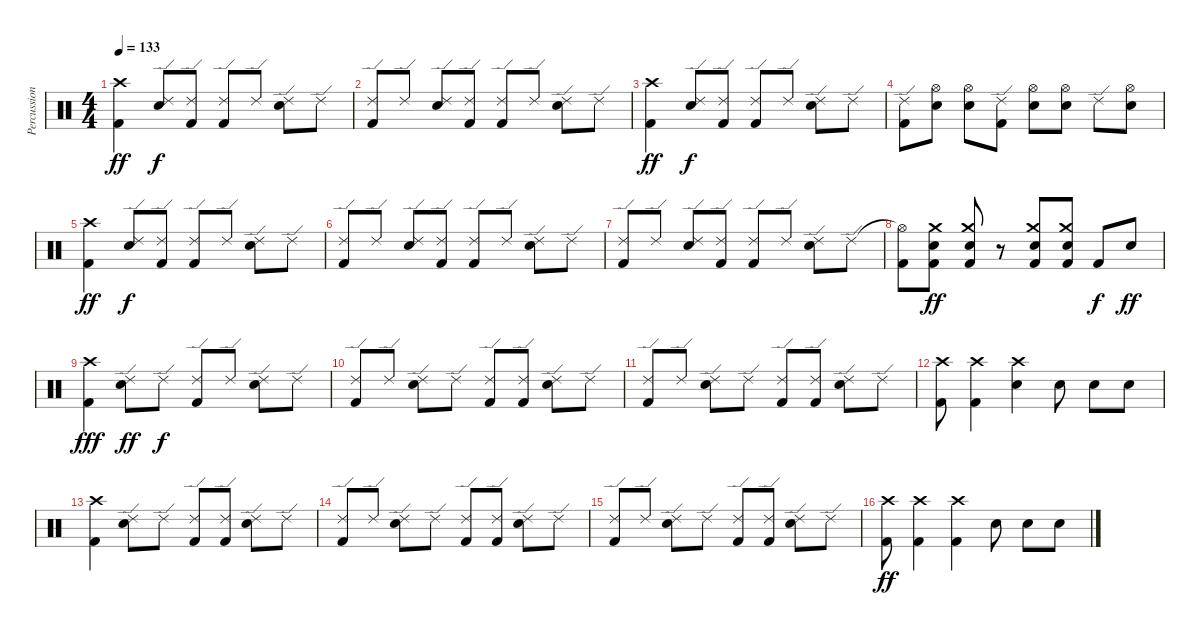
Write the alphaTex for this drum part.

\track ("Percussion" "Percussion") {instrument percussion}
\staff {score}
\articulation defaults
\ts (4 4)
\tempo 133
\clef neutral
\ks c
("Crash high (hit)" "Kick (hit) 2").4{dy ff} ("Ride (edge) 2" "Snare (hit) 2").8{dy f} ("Ride (edge) 2" "Kick (hit) 2").8 ("Ride (edge) 2" "Kick (hit) 2").8 "Ride (edge) 2".8 ("Ride (edge) 2" "Snare (hit) 2").8 "Ride (edge) 2".8 |
("Ride (edge) 2" "Kick (hit) 2").8 "Ride (edge) 2".8 ("Ride (edge) 2" "Snare (hit) 2").8 ("Ride (edge) 2" "Kick (hit) 2").8 ("Ride (edge) 2" "Kick (hit) 2").8 "Ride (edge) 2".8 ("Ride (edge) 2" "Snare (hit) 2").8 "Ride (edge) 2".8 |
("Crash high (hit)" "Kick (hit) 2").4{dy ff} ("Ride (edge) 2" "Snare (hit) 2").8{dy f} ("Ride (edge) 2" "Kick (hit) 2").8 ("Ride (edge) 2" "Kick (hit) 2").8 "Ride (edge) 2".8 ("Ride (edge) 2" "Snare (hit) 2").8 "Ride (edge) 2".8 |
("Ride (edge) 2" "Kick (hit) 2").8 ("Hi-Hat (open)" "Snare (hit) 2").8 ("Hi-Hat (open)" "Snare (hit) 2").8 ("Ride (edge) 2" "Kick (hit) 2").8 ("Hi-Hat (open)" "Snare (hit) 2").8 ("Hi-Hat (open)" "Snare (hit) 2").8 "Ride (edge) 2".8 ("Hi-Hat (open)" "Snare (hit) 2").8 |
("Crash high (hit)" "Kick (hit) 2").4{dy ff} ("Ride (edge) 2" "Snare (hit) 2").8{dy f} ("Ride (edge) 2" "Kick (hit) 2").8 ("Ride (edge) 2" "Kick (hit) 2").8 "Ride (edge) 2".8 ("Ride (edge) 2" "Snare (hit) 2").8 "Ride (edge) 2".8 |
("Ride (edge) 2" "Kick (hit) 2").8 "Ride (edge) 2".8 ("Ride (edge) 2" "Snare (hit) 2").8 ("Ride (edge) 2" "Kick (hit) 2").8 ("Ride (edge) 2" "Kick (hit) 2").8 "Ride (edge) 2".8 ("Ride (edge) 2" "Snare (hit) 2").8 "Ride (edge) 2".8 |
("Ride (edge) 2" "Kick (hit) 2").8 "Ride (edge) 2".8 ("Ride (edge) 2" "Snare (hit) 2").8 ("Ride (edge) 2" "Kick (hit) 2").8 ("Ride (edge) 2" "Kick (hit) 2").8 "Ride (edge) 2".8 ("Ride (edge) 2" "Snare (hit) 2").8 "Ride (edge) 2".8 |
("Hi-Hat (open)"{t} "Kick (hit) 2").8 ("Crash medium (hit)" "Electric Snare (hit)" "Kick (hit) 2").8{dy ff} ("Crash medium (hit)" "Electric Snare (hit)" "Kick (hit) 2").8 r.8 ("Crash medium (hit)" "Electric Snare (hit)" "Kick (hit) 2").8 ("Crash medium (hit)" "Electric Snare (hit)" "Kick (hit) 2").8 "Kick (hit) 2".8{dy f} "Electric Snare (hit)".8{dy ff} |
("Crash high (hit)" "Kick (hit) 2").4{dy fff} ("Ride (edge) 2" "Snare (hit) 2").8{dy ff} "Ride (edge) 2".8{dy f} ("Ride (edge) 2" "Kick (hit) 2").8 "Ride (edge) 2".8 ("Ride (edge) 2" "Snare (hit) 2").8 "Ride (edge) 2".8 |
("Ride (edge) 2" "Kick (hit) 2").8 "Ride (edge) 2".8 ("Ride (edge) 2" "Snare (hit) 2").8 "Ride (edge) 2".8 ("Ride (edge) 2" "Kick (hit) 2").8 ("Ride (edge) 2" "Kick (hit) 2").8 ("Ride (edge) 2" "Snare (hit) 2").8 "Ride (edge) 2".8 |
("Ride (edge) 2" "Kick (hit) 2").8 "Ride (edge) 2".8 ("Ride (edge) 2" "Snare (hit) 2").8 "Ride (edge) 2".8 ("Ride (edge) 2" "Kick (hit) 2").8 ("Ride (edge) 2" "Kick (hit) 2").8 ("Ride (edge) 2" "Snare (hit) 2").8 "Ride (edge) 2".8 |
("Crash high (hit)" "Kick (hit) 2").8 ("Crash high (hit)" "Kick (hit) 2").4 ("Crash high (hit)" "Snare (hit) 2").4 "Electric Snare (hit)".8 "Electric Snare (hit)".8 "Electric Snare (hit)".8 |
("Crash high (hit)" "Kick (hit) 2").4 ("Ride (edge) 2" "Snare (hit) 2").8 "Ride (edge) 2".8 ("Ride (edge) 2" "Kick (hit) 2").8 ("Ride (edge) 2" "Kick (hit) 2").8 ("Ride (edge) 2" "Snare (hit) 2").8 "Ride (edge) 2".8 |
("Ride (edge) 2" "Kick (hit) 2").8 "Ride (edge) 2".8 ("Ride (edge) 2" "Snare (hit) 2").8 "Ride (edge) 2".8 ("Ride (edge) 2" "Kick (hit) 2").8 ("Ride (edge) 2" "Kick (hit) 2").8 ("Ride (edge) 2" "Snare (hit) 2").8 "Ride (edge) 2".8 |
("Ride (edge) 2" "Kick (hit) 2").8 "Ride (edge) 2".8 ("Ride (edge) 2" "Snare (hit) 2").8 "Ride (edge) 2".8 ("Ride (edge) 2" "Kick (hit) 2").8 ("Ride (edge) 2" "Kick (hit) 2").8 ("Ride (edge) 2" "Snare (hit) 2").8 "Ride (edge) 2".8 |
("Crash high (hit)" "Kick (hit) 2").8{dy ff} ("Crash high (hit)" "Kick (hit) 2").4 ("Crash high (hit)" "Kick (hit) 2").4 "Snare (hit) 2".8 "Snare (hit) 2".8 "Snare (hit) 2".8
